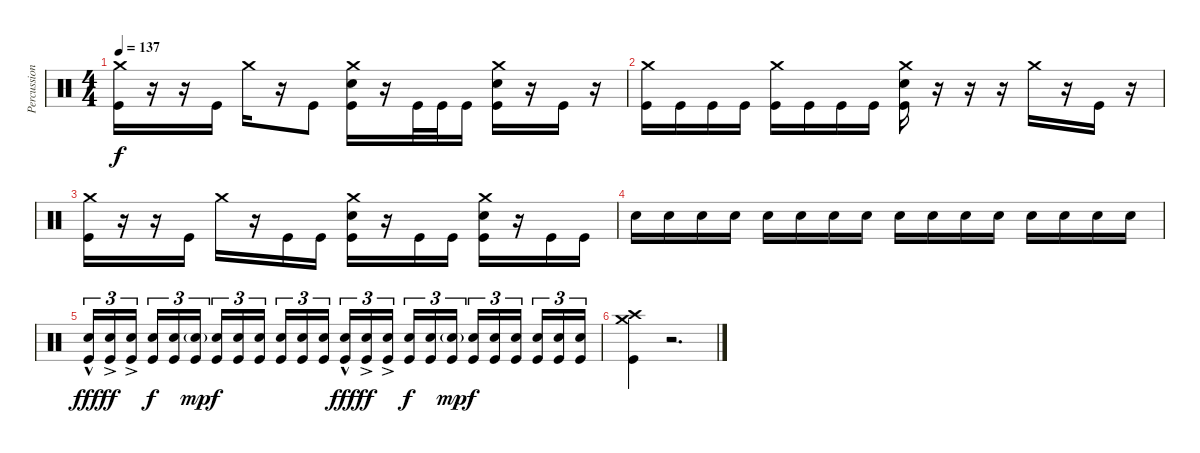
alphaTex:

\track ("Percussion" "Percussion") {instrument percussion}
\staff {score}
\articulation defaults
\ts (4 4)
\tempo 137
\clef neutral
\ks c
("Crash medium (hit)" "Kick (hit)").16{dy f} r.16 r.16 "Kick (hit)".16 "Crash medium (hit)".16 r.16 "Kick (hit)".8 ("Crash medium (hit)" "Snare (hit) 2" "Kick (hit)").16 r.16 "Kick (hit)".32 "Kick (hit)".32 "Kick (hit)".16 ("Crash medium (hit)" "Snare (hit) 2" "Kick (hit)").16 r.16 "Kick (hit)".16 r.16 |
("Crash medium (hit)" "Kick (hit)").16 "Kick (hit)".16 "Kick (hit)".16 "Kick (hit)".16 ("Crash medium (hit)" "Kick (hit)").16 "Kick (hit)".16 "Kick (hit)".16 "Kick (hit)".16 ("Crash medium (hit)" "Snare (hit) 2" "Kick (hit)").16 r.16 r.16 r.16 "Crash medium (hit)".16 r.16 "Kick (hit)".16 r.16 |
("Crash medium (hit)" "Kick (hit)").16 r.16 r.16 "Kick (hit)".16 "Crash medium (hit)".16 r.16 "Kick (hit)".16 "Kick (hit)".16 ("Crash medium (hit)" "Snare (hit) 2" "Kick (hit)").16 r.16 "Kick (hit)".16 "Kick (hit)".16 ("Crash medium (hit)" "Snare (hit) 2" "Kick (hit)").16 r.16 "Kick (hit)".16 "Kick (hit)".16 |
"Snare (hit) 2".16{volume 10} "Snare (hit) 2".16{volume 16} "Snare (hit) 2".16 "Snare (hit) 2".16 "Snare (hit) 2".16 "Snare (hit) 2".16 "Snare (hit) 2".16 "Snare (hit) 2".16 "Snare (hit) 2".16 "Snare (hit) 2".16 "Snare (hit) 2".16 "Snare (hit) 2".16 "Snare (hit) 2".16 "Snare (hit) 2".16 "Snare (hit) 2".16 "Snare (hit) 2".16 |
("Snare (hit) 2"{hac} "Kick (hit)").16{tu (3 2) dy fff} ("Snare (hit) 2"{ac} "Kick (hit)").16{tu (3 2) dy ff} ("Snare (hit) 2"{ac} "Kick (hit)").16{tu (3 2) beam splitsecondary} ("Snare (hit) 2" "Kick (hit)").16{tu (3 2) dy f} ("Snare (hit) 2" "Kick (hit)").16{tu (3 2)} ("Snare (hit) 2"{g} "Kick (hit)").16{tu (3 2) dy mp} ("Snare (hit) 2" "Kick (hit)").16{tu (3 2) dy f} ("Snare (hit) 2" "Kick (hit)").16{tu (3 2)} ("Snare (hit) 2" "Kick (hit)").16{tu (3 2) beam splitsecondary} ("Snare (hit) 2" "Kick (hit)").16{tu (3 2)} ("Snare (hit) 2" "Kick (hit)").16{tu (3 2)} ("Snare (hit) 2" "Kick (hit)").16{tu (3 2)} ("Snare (hit) 2"{hac} "Kick (hit)").16{tu (3 2) dy fff} ("Snare (hit) 2"{ac} "Kick (hit)").16{tu (3 2) dy ff} ("Snare (hit) 2"{ac} "Kick (hit)").16{tu (3 2) beam splitsecondary} ("Snare (hit) 2" "Kick (hit)").16{tu (3 2) dy f} ("Snare (hit) 2" "Kick (hit)").16{tu (3 2)} ("Snare (hit) 2"{g} "Kick (hit)").16{tu (3 2) dy mp} ("Snare (hit) 2" "Kick (hit)").16{tu (3 2) dy f} ("Snare (hit) 2" "Kick (hit)").16{tu (3 2)} ("Snare (hit) 2" "Kick (hit)").16{tu (3 2) beam splitsecondary} ("Snare (hit) 2" "Kick (hit)").16{tu (3 2)} ("Snare (hit) 2" "Kick (hit)").16{tu (3 2)} ("Snare (hit) 2" "Kick (hit)").16{tu (3 2)} |
("Crash high (hit)" "Crash medium (hit)" "Kick (hit)").4 r.2{d}
